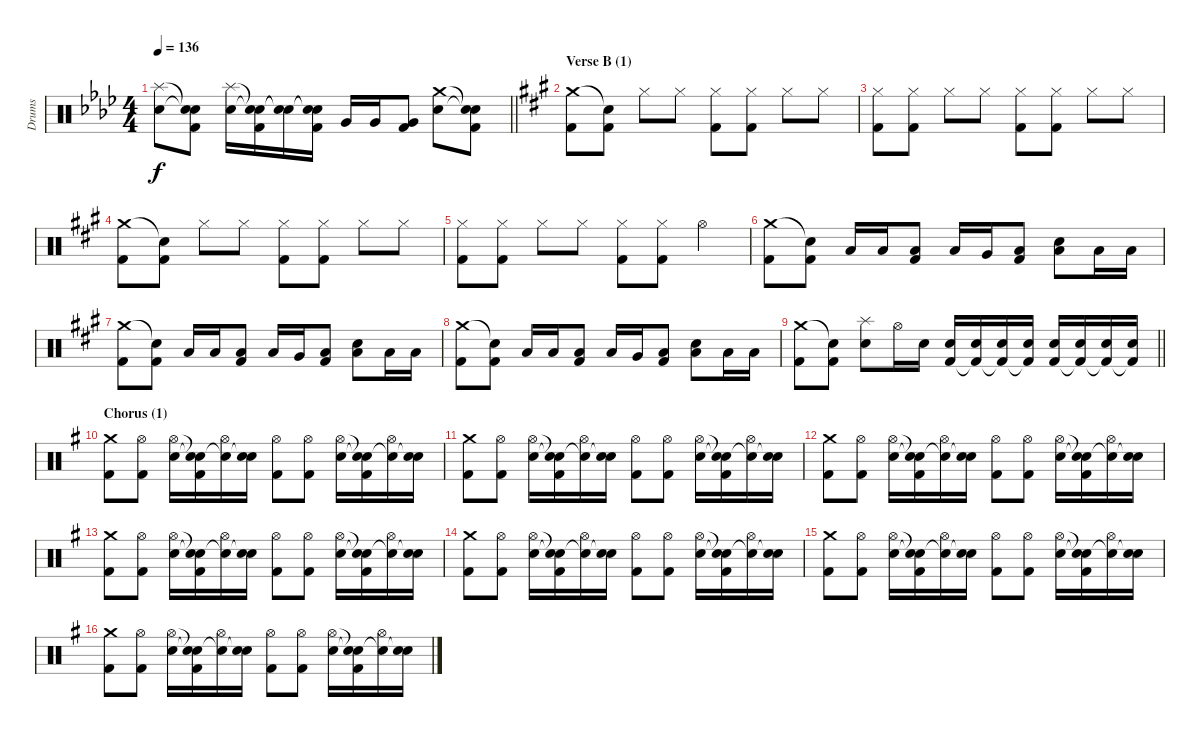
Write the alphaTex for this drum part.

\track ("Drums" "Drums") {instrument percussion}
\staff {score}
\articulation defaults
\ts (4 4)
\tempo 136
\clef neutral
\barLineRight lightlight
\ks ab
("Splash (hit)" "Electric Snare (hit)").8{dy f} ("Snare (hit)"{t} "Snare (hit)"{t} "Kick (hit) 2").8 ("Splash (hit)" "Electric Snare (hit)").16 ("Snare (hit)"{t} "Snare (hit)"{t} "Kick (hit) 2").16 ("Snare (hit)"{t} "Snare (hit)"{t}).16 ("Snare (hit)"{t} "Snare (hit)"{t} "Kick (hit) 2").16 "Very Low Tom (hit)".16 "Very Low Tom (hit)".16 ("Very Low Tom (hit)" "Kick (hit) 2").8 ("Crash medium (hit)" "Electric Snare (hit)").8 ("Snare (hit)"{t} "Snare (hit)"{t} "Kick (hit) 2").8 |
\section ("" "Verse B (1)")
\ks a
("Crash medium (hit)" "Kick (hit) 2").8 ("Snare (hit)"{t} "Kick (hit) 2").8 "Hi-Hat (closed)".8 "Hi-Hat (closed)".8 ("Hi-Hat (closed)" "Kick (hit) 2").8 ("Hi-Hat (closed)" "Kick (hit) 2").8 "Hi-Hat (closed)".8 "Hi-Hat (closed)".8 |
("Hi-Hat (closed)" "Kick (hit) 2").8 ("Hi-Hat (closed)" "Kick (hit) 2").8 "Hi-Hat (closed)".8 "Hi-Hat (closed)".8 ("Hi-Hat (closed)" "Kick (hit) 2").8 ("Hi-Hat (closed)" "Kick (hit) 2").8 "Hi-Hat (closed)".8 "Hi-Hat (closed)".8 |
("Crash medium (hit)" "Kick (hit) 2").8 ("Snare (hit)"{t} "Kick (hit) 2").8 "Hi-Hat (closed)".8 "Hi-Hat (closed)".8 ("Hi-Hat (closed)" "Kick (hit) 2").8 ("Hi-Hat (closed)" "Kick (hit) 2").8 "Hi-Hat (closed)".8 "Hi-Hat (closed)".8 |
("Hi-Hat (closed)" "Kick (hit) 2").8 ("Hi-Hat (closed)" "Kick (hit) 2").8 "Hi-Hat (closed)".8 "Hi-Hat (closed)".8 ("Hi-Hat (closed)" "Kick (hit) 2").8 ("Hi-Hat (closed)" "Kick (hit) 2").8 "Hi-Hat (open)".4 |
("Crash medium (hit)" "Kick (hit) 2").8 ("Snare (hit)"{t} "Kick (hit) 2").8 "Low Floor Tom (hit)".16 "Low Tom (hit)".16 ("Low Floor Tom (hit)" "Kick (hit) 2").8 "Low Floor Tom (hit)".16 "Very Low Tom (hit)".16 ("Low Floor Tom (hit)" "Kick (hit) 2").8 ("Electric Snare (hit)" "Low Floor Tom (hit)").8 "Low Floor Tom (hit)".16 "Low Floor Tom (hit)".16 |
("Crash medium (hit)" "Kick (hit) 2").8 ("Snare (hit)"{t} "Kick (hit) 2").8 "Low Floor Tom (hit)".16 "Low Tom (hit)".16 ("Low Floor Tom (hit)" "Kick (hit) 2").8 "Low Floor Tom (hit)".16 "Very Low Tom (hit)".16 ("Low Floor Tom (hit)" "Kick (hit) 2").8 ("Electric Snare (hit)" "Low Floor Tom (hit)").8 "Low Floor Tom (hit)".16 "Low Floor Tom (hit)".16 |
("Crash medium (hit)" "Kick (hit) 2").8 ("Snare (hit)"{t} "Kick (hit) 2").8 "Low Floor Tom (hit)".16 "Low Tom (hit)".16 ("Low Floor Tom (hit)" "Kick (hit) 2").8 "Low Floor Tom (hit)".16 "Very Low Tom (hit)".16 ("Low Floor Tom (hit)" "Kick (hit) 2").8 ("Electric Snare (hit)" "Low Floor Tom (hit)").8 "Low Floor Tom (hit)".16 "Low Floor Tom (hit)".16 |
\barLineRight lightlight
("Crash medium (hit)" "Kick (hit) 2").8 ("Snare (hit)"{t} "Kick (hit) 2").8 ("Splash (hit)" "Electric Snare (hit)").8 "Hi-Hat (open)".16 "Electric Snare (hit)".16 ("Electric Snare (hit)" "Kick (hit) 2").16 ("Electric Snare (hit)" "Kick (hit) 2"{t}).16 ("Electric Snare (hit)" "Kick (hit) 2"{t}).16 ("Electric Snare (hit)" "Kick (hit) 2"{t}).16 ("Electric Snare (hit)" "Kick (hit) 2").16 ("Electric Snare (hit)" "Kick (hit) 2"{t}).16 ("Electric Snare (hit)" "Kick (hit) 2"{t}).16 ("Electric Snare (hit)" "Kick (hit) 2"{t}).16 |
\section ("" "Chorus (1)")
\ks g
("Crash medium (hit)" "Kick (hit) 2").8 ("Hi-Hat (open)" "Kick (hit) 2").8 ("Hi-Hat (open)" "Electric Snare (hit)").16 ("Snare (hit)"{t} "Snare (hit)"{t} "Kick (hit) 2").16 ("Hi-Hat (open)" "Snare (hit)"{t}).16 ("Electric Snare (hit)" "Snare (hit)"{t}).16 ("Hi-Hat (open)" "Kick (hit) 2").8 ("Hi-Hat (open)" "Kick (hit) 2").8 ("Hi-Hat (open)" "Electric Snare (hit)").16 ("Snare (hit)"{t} "Snare (hit)"{t} "Kick (hit) 2").16 ("Hi-Hat (open)" "Snare (hit)"{t}).16 ("Electric Snare (hit)" "Snare (hit)"{t}).16 |
("Crash medium (hit)" "Kick (hit) 2").8 ("Hi-Hat (open)" "Kick (hit) 2").8 ("Hi-Hat (open)" "Electric Snare (hit)").16 ("Snare (hit)"{t} "Snare (hit)"{t} "Kick (hit) 2").16 ("Hi-Hat (open)" "Snare (hit)"{t}).16 ("Electric Snare (hit)" "Snare (hit)"{t}).16 ("Hi-Hat (open)" "Kick (hit) 2").8 ("Hi-Hat (open)" "Kick (hit) 2").8 ("Hi-Hat (open)" "Electric Snare (hit)").16 ("Snare (hit)"{t} "Snare (hit)"{t} "Kick (hit) 2").16 ("Hi-Hat (open)" "Snare (hit)"{t}).16 ("Electric Snare (hit)" "Snare (hit)"{t}).16 |
("Crash medium (hit)" "Kick (hit) 2").8 ("Hi-Hat (open)" "Kick (hit) 2").8 ("Hi-Hat (open)" "Electric Snare (hit)").16 ("Snare (hit)"{t} "Snare (hit)"{t} "Kick (hit) 2").16 ("Hi-Hat (open)" "Snare (hit)"{t}).16 ("Electric Snare (hit)" "Snare (hit)"{t}).16 ("Hi-Hat (open)" "Kick (hit) 2").8 ("Hi-Hat (open)" "Kick (hit) 2").8 ("Hi-Hat (open)" "Electric Snare (hit)").16 ("Snare (hit)"{t} "Snare (hit)"{t} "Kick (hit) 2").16 ("Hi-Hat (open)" "Snare (hit)"{t}).16 ("Electric Snare (hit)" "Snare (hit)"{t}).16 |
("Crash medium (hit)" "Kick (hit) 2").8 ("Hi-Hat (open)" "Kick (hit) 2").8 ("Hi-Hat (open)" "Electric Snare (hit)").16 ("Snare (hit)"{t} "Snare (hit)"{t} "Kick (hit) 2").16 ("Hi-Hat (open)" "Snare (hit)"{t}).16 ("Electric Snare (hit)" "Snare (hit)"{t}).16 ("Hi-Hat (open)" "Kick (hit) 2").8 ("Hi-Hat (open)" "Kick (hit) 2").8 ("Hi-Hat (open)" "Electric Snare (hit)").16 ("Snare (hit)"{t} "Snare (hit)"{t} "Kick (hit) 2").16 ("Hi-Hat (open)" "Snare (hit)"{t}).16 ("Electric Snare (hit)" "Snare (hit)"{t}).16 |
("Crash medium (hit)" "Kick (hit) 2").8 ("Hi-Hat (open)" "Kick (hit) 2").8 ("Hi-Hat (open)" "Electric Snare (hit)").16 ("Snare (hit)"{t} "Snare (hit)"{t} "Kick (hit) 2").16 ("Hi-Hat (open)" "Snare (hit)"{t}).16 ("Electric Snare (hit)" "Snare (hit)"{t}).16 ("Hi-Hat (open)" "Kick (hit) 2").8 ("Hi-Hat (open)" "Kick (hit) 2").8 ("Hi-Hat (open)" "Electric Snare (hit)").16 ("Snare (hit)"{t} "Snare (hit)"{t} "Kick (hit) 2").16 ("Hi-Hat (open)" "Snare (hit)"{t}).16 ("Electric Snare (hit)" "Snare (hit)"{t}).16 |
("Crash medium (hit)" "Kick (hit) 2").8 ("Hi-Hat (open)" "Kick (hit) 2").8 ("Hi-Hat (open)" "Electric Snare (hit)").16 ("Snare (hit)"{t} "Snare (hit)"{t} "Kick (hit) 2").16 ("Hi-Hat (open)" "Snare (hit)"{t}).16 ("Electric Snare (hit)" "Snare (hit)"{t}).16 ("Hi-Hat (open)" "Kick (hit) 2").8 ("Hi-Hat (open)" "Kick (hit) 2").8 ("Hi-Hat (open)" "Electric Snare (hit)").16 ("Snare (hit)"{t} "Snare (hit)"{t} "Kick (hit) 2").16 ("Hi-Hat (open)" "Snare (hit)"{t}).16 ("Electric Snare (hit)" "Snare (hit)"{t}).16 |
("Crash medium (hit)" "Kick (hit) 2").8 ("Hi-Hat (open)" "Kick (hit) 2").8 ("Hi-Hat (open)" "Electric Snare (hit)").16 ("Snare (hit)"{t} "Snare (hit)"{t} "Kick (hit) 2").16 ("Hi-Hat (open)" "Snare (hit)"{t}).16 ("Electric Snare (hit)" "Snare (hit)"{t}).16 ("Hi-Hat (open)" "Kick (hit) 2").8 ("Hi-Hat (open)" "Kick (hit) 2").8 ("Hi-Hat (open)" "Electric Snare (hit)").16 ("Snare (hit)"{t} "Snare (hit)"{t} "Kick (hit) 2").16 ("Hi-Hat (open)" "Snare (hit)"{t}).16 ("Electric Snare (hit)" "Snare (hit)"{t}).16
